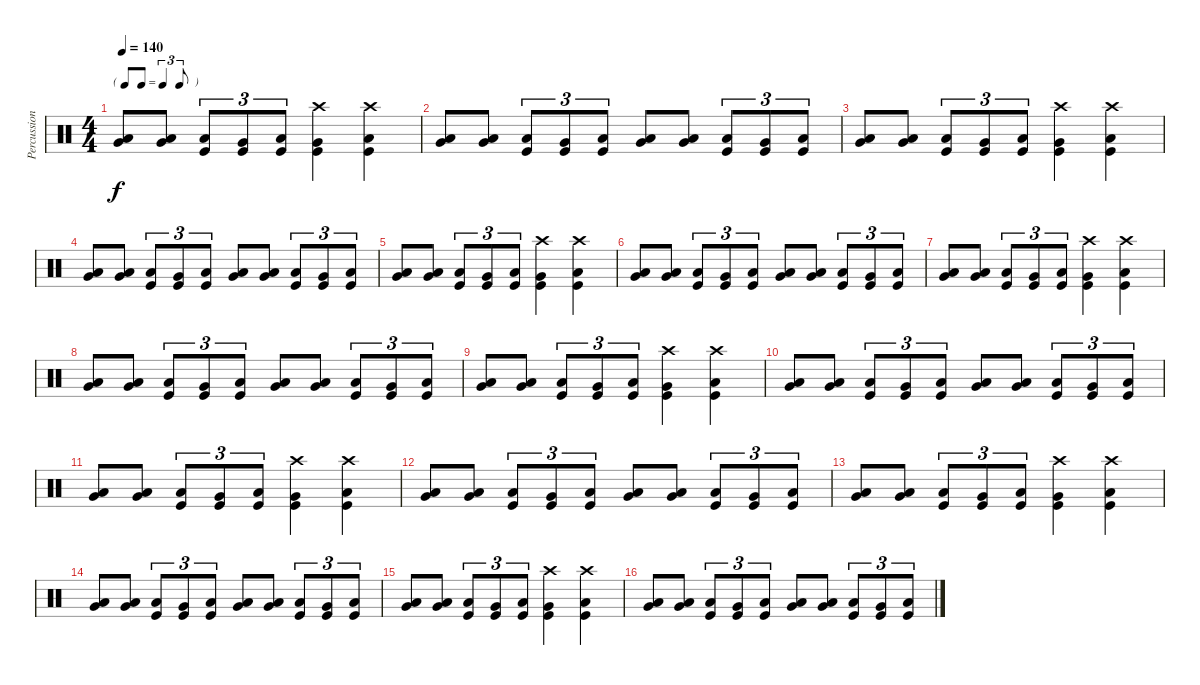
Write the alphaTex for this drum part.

\track ("Percussion" "Percussion") {instrument percussion}
\staff {score}
\articulation defaults
\ts (4 4)
\tf triplet8th
\tempo 140
\clef neutral
\ks c
("Very Low Tom (hit)" "Low Floor Tom (hit)").8{dy f} ("Very Low Tom (hit)" "Low Floor Tom (hit)").8 ("Low Floor Tom (hit)" "Kick (hit)").8{tu (3 2)} ("Very Low Tom (hit)" "Kick (hit)").8{tu (3 2)} ("Low Floor Tom (hit)" "Kick (hit)").8{tu (3 2)} ("Crash high (hit)" "Very Low Tom (hit)" "Kick (hit)").4 ("Crash high (hit)" "Low Floor Tom (hit)" "Kick (hit)").4 |
("Very Low Tom (hit)" "Low Floor Tom (hit)").8 ("Very Low Tom (hit)" "Low Floor Tom (hit)").8 ("Low Floor Tom (hit)" "Kick (hit)").8{tu (3 2)} ("Very Low Tom (hit)" "Kick (hit)").8{tu (3 2)} ("Low Floor Tom (hit)" "Kick (hit)").8{tu (3 2)} ("Very Low Tom (hit)" "Low Floor Tom (hit)").8 ("Very Low Tom (hit)" "Low Floor Tom (hit)").8 ("Low Floor Tom (hit)" "Kick (hit)").8{tu (3 2)} ("Very Low Tom (hit)" "Kick (hit)").8{tu (3 2)} ("Low Floor Tom (hit)" "Kick (hit)").8{tu (3 2)} |
("Very Low Tom (hit)" "Low Floor Tom (hit)").8 ("Very Low Tom (hit)" "Low Floor Tom (hit)").8 ("Low Floor Tom (hit)" "Kick (hit)").8{tu (3 2)} ("Very Low Tom (hit)" "Kick (hit)").8{tu (3 2)} ("Low Floor Tom (hit)" "Kick (hit)").8{tu (3 2)} ("Crash high (hit)" "Very Low Tom (hit)" "Kick (hit)").4 ("Crash high (hit)" "Low Floor Tom (hit)" "Kick (hit)").4 |
("Very Low Tom (hit)" "Low Floor Tom (hit)").8 ("Very Low Tom (hit)" "Low Floor Tom (hit)").8 ("Low Floor Tom (hit)" "Kick (hit)").8{tu (3 2)} ("Very Low Tom (hit)" "Kick (hit)").8{tu (3 2)} ("Low Floor Tom (hit)" "Kick (hit)").8{tu (3 2)} ("Very Low Tom (hit)" "Low Floor Tom (hit)").8 ("Very Low Tom (hit)" "Low Floor Tom (hit)").8 ("Low Floor Tom (hit)" "Kick (hit)").8{tu (3 2)} ("Very Low Tom (hit)" "Kick (hit)").8{tu (3 2)} ("Low Floor Tom (hit)" "Kick (hit)").8{tu (3 2)} |
("Very Low Tom (hit)" "Low Floor Tom (hit)").8 ("Very Low Tom (hit)" "Low Floor Tom (hit)").8 ("Low Floor Tom (hit)" "Kick (hit)").8{tu (3 2)} ("Very Low Tom (hit)" "Kick (hit)").8{tu (3 2)} ("Low Floor Tom (hit)" "Kick (hit)").8{tu (3 2)} ("Crash high (hit)" "Very Low Tom (hit)" "Kick (hit)").4 ("Crash high (hit)" "Low Floor Tom (hit)" "Kick (hit)").4 |
("Very Low Tom (hit)" "Low Floor Tom (hit)").8 ("Very Low Tom (hit)" "Low Floor Tom (hit)").8 ("Low Floor Tom (hit)" "Kick (hit)").8{tu (3 2)} ("Very Low Tom (hit)" "Kick (hit)").8{tu (3 2)} ("Low Floor Tom (hit)" "Kick (hit)").8{tu (3 2)} ("Very Low Tom (hit)" "Low Floor Tom (hit)").8 ("Very Low Tom (hit)" "Low Floor Tom (hit)").8 ("Low Floor Tom (hit)" "Kick (hit)").8{tu (3 2)} ("Very Low Tom (hit)" "Kick (hit)").8{tu (3 2)} ("Low Floor Tom (hit)" "Kick (hit)").8{tu (3 2)} |
("Very Low Tom (hit)" "Low Floor Tom (hit)").8 ("Very Low Tom (hit)" "Low Floor Tom (hit)").8 ("Low Floor Tom (hit)" "Kick (hit)").8{tu (3 2)} ("Very Low Tom (hit)" "Kick (hit)").8{tu (3 2)} ("Low Floor Tom (hit)" "Kick (hit)").8{tu (3 2)} ("Crash high (hit)" "Very Low Tom (hit)" "Kick (hit)").4 ("Crash high (hit)" "Low Floor Tom (hit)" "Kick (hit)").4 |
("Very Low Tom (hit)" "Low Floor Tom (hit)").8 ("Very Low Tom (hit)" "Low Floor Tom (hit)").8 ("Low Floor Tom (hit)" "Kick (hit)").8{tu (3 2)} ("Very Low Tom (hit)" "Kick (hit)").8{tu (3 2)} ("Low Floor Tom (hit)" "Kick (hit)").8{tu (3 2)} ("Very Low Tom (hit)" "Low Floor Tom (hit)").8 ("Very Low Tom (hit)" "Low Floor Tom (hit)").8 ("Low Floor Tom (hit)" "Kick (hit)").8{tu (3 2)} ("Very Low Tom (hit)" "Kick (hit)").8{tu (3 2)} ("Low Floor Tom (hit)" "Kick (hit)").8{tu (3 2)} |
("Very Low Tom (hit)" "Low Floor Tom (hit)").8 ("Very Low Tom (hit)" "Low Floor Tom (hit)").8 ("Low Floor Tom (hit)" "Kick (hit)").8{tu (3 2)} ("Very Low Tom (hit)" "Kick (hit)").8{tu (3 2)} ("Low Floor Tom (hit)" "Kick (hit)").8{tu (3 2)} ("Crash high (hit)" "Very Low Tom (hit)" "Kick (hit)").4 ("Crash high (hit)" "Low Floor Tom (hit)" "Kick (hit)").4 |
("Very Low Tom (hit)" "Low Floor Tom (hit)").8 ("Very Low Tom (hit)" "Low Floor Tom (hit)").8 ("Low Floor Tom (hit)" "Kick (hit)").8{tu (3 2)} ("Very Low Tom (hit)" "Kick (hit)").8{tu (3 2)} ("Low Floor Tom (hit)" "Kick (hit)").8{tu (3 2)} ("Very Low Tom (hit)" "Low Floor Tom (hit)").8 ("Very Low Tom (hit)" "Low Floor Tom (hit)").8 ("Low Floor Tom (hit)" "Kick (hit)").8{tu (3 2)} ("Very Low Tom (hit)" "Kick (hit)").8{tu (3 2)} ("Low Floor Tom (hit)" "Kick (hit)").8{tu (3 2)} |
("Very Low Tom (hit)" "Low Floor Tom (hit)").8 ("Very Low Tom (hit)" "Low Floor Tom (hit)").8 ("Low Floor Tom (hit)" "Kick (hit)").8{tu (3 2)} ("Very Low Tom (hit)" "Kick (hit)").8{tu (3 2)} ("Low Floor Tom (hit)" "Kick (hit)").8{tu (3 2)} ("Crash high (hit)" "Very Low Tom (hit)" "Kick (hit)").4 ("Crash high (hit)" "Low Floor Tom (hit)" "Kick (hit)").4 |
("Very Low Tom (hit)" "Low Floor Tom (hit)").8 ("Very Low Tom (hit)" "Low Floor Tom (hit)").8 ("Low Floor Tom (hit)" "Kick (hit)").8{tu (3 2)} ("Very Low Tom (hit)" "Kick (hit)").8{tu (3 2)} ("Low Floor Tom (hit)" "Kick (hit)").8{tu (3 2)} ("Very Low Tom (hit)" "Low Floor Tom (hit)").8 ("Very Low Tom (hit)" "Low Floor Tom (hit)").8 ("Low Floor Tom (hit)" "Kick (hit)").8{tu (3 2)} ("Very Low Tom (hit)" "Kick (hit)").8{tu (3 2)} ("Low Floor Tom (hit)" "Kick (hit)").8{tu (3 2)} |
("Very Low Tom (hit)" "Low Floor Tom (hit)").8 ("Very Low Tom (hit)" "Low Floor Tom (hit)").8 ("Low Floor Tom (hit)" "Kick (hit)").8{tu (3 2)} ("Very Low Tom (hit)" "Kick (hit)").8{tu (3 2)} ("Low Floor Tom (hit)" "Kick (hit)").8{tu (3 2)} ("Crash high (hit)" "Very Low Tom (hit)" "Kick (hit)").4 ("Crash high (hit)" "Low Floor Tom (hit)" "Kick (hit)").4 |
("Very Low Tom (hit)" "Low Floor Tom (hit)").8 ("Very Low Tom (hit)" "Low Floor Tom (hit)").8 ("Low Floor Tom (hit)" "Kick (hit)").8{tu (3 2)} ("Very Low Tom (hit)" "Kick (hit)").8{tu (3 2)} ("Low Floor Tom (hit)" "Kick (hit)").8{tu (3 2)} ("Very Low Tom (hit)" "Low Floor Tom (hit)").8 ("Very Low Tom (hit)" "Low Floor Tom (hit)").8 ("Low Floor Tom (hit)" "Kick (hit)").8{tu (3 2)} ("Very Low Tom (hit)" "Kick (hit)").8{tu (3 2)} ("Low Floor Tom (hit)" "Kick (hit)").8{tu (3 2)} |
("Very Low Tom (hit)" "Low Floor Tom (hit)").8 ("Very Low Tom (hit)" "Low Floor Tom (hit)").8 ("Low Floor Tom (hit)" "Kick (hit)").8{tu (3 2)} ("Very Low Tom (hit)" "Kick (hit)").8{tu (3 2)} ("Low Floor Tom (hit)" "Kick (hit)").8{tu (3 2)} ("Crash high (hit)" "Very Low Tom (hit)" "Kick (hit)").4 ("Crash high (hit)" "Low Floor Tom (hit)" "Kick (hit)").4 |
("Very Low Tom (hit)" "Low Floor Tom (hit)").8 ("Very Low Tom (hit)" "Low Floor Tom (hit)").8 ("Low Floor Tom (hit)" "Kick (hit)").8{tu (3 2)} ("Very Low Tom (hit)" "Kick (hit)").8{tu (3 2)} ("Low Floor Tom (hit)" "Kick (hit)").8{tu (3 2)} ("Very Low Tom (hit)" "Low Floor Tom (hit)").8 ("Very Low Tom (hit)" "Low Floor Tom (hit)").8 ("Low Floor Tom (hit)" "Kick (hit)").8{tu (3 2)} ("Very Low Tom (hit)" "Kick (hit)").8{tu (3 2)} ("Low Floor Tom (hit)" "Kick (hit)").8{tu (3 2)}
